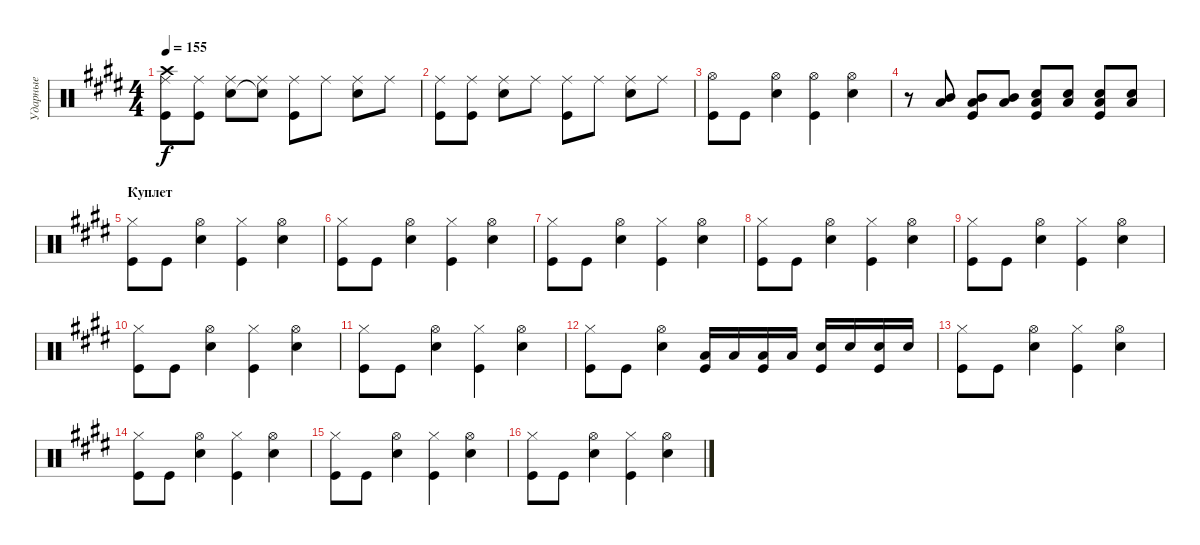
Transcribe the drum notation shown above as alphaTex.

\track ("Ударные" "Ударные") {instrument percussion}
\staff {score}
\articulation defaults
\ts (4 4)
\tempo 155
\clef neutral
\ks e
("Ride (middle)" "Crash high (hit)" "Kick (hit)").8{dy f} ("Ride (middle)" "Kick (hit)").8 ("Ride (middle)" "Snare (hit) 2").8 ("Ride (middle)" "Snare (hit)"{t}).8 ("Ride (middle)" "Kick (hit)").8 "Ride (middle)".8 ("Ride (middle)" "Snare (hit) 2").8 "Ride (middle)".8 |
("Ride (middle)" "Kick (hit)").8 ("Ride (middle)" "Kick (hit)").8 ("Ride (middle)" "Snare (hit) 2").8 "Ride (middle)".8 ("Ride (middle)" "Kick (hit)").8 "Ride (middle)".8 ("Ride (middle)" "Snare (hit) 2").8 "Ride (middle)".8 |
("Hi-Hat (open)" "Kick (hit)").8 "Kick (hit)".8 ("Hi-Hat (open)" "Snare (hit) 2").4 ("Hi-Hat (open)" "Kick (hit)").4 ("Hi-Hat (open)" "Snare (hit) 2").4 |
r.8 ("Mid Tom (hit)" "Low Tom (hit)").8 ("Mid Tom (hit)" "Low Tom (hit)" "Kick (hit)").8 ("Mid Tom (hit)" "Low Tom (hit)").8 ("Snare (hit) 2" "Low Tom (hit)" "Kick (hit)").8 ("Snare (hit) 2" "Low Tom (hit)").8 ("Snare (hit) 2" "Low Tom (hit)" "Kick (hit)").8 ("Snare (hit) 2" "Low Tom (hit)").8 |
\section ("" "Куплет")
("Hi-Hat (closed)" "Kick (hit)").8 "Kick (hit)".8 ("Hi-Hat (open)" "Snare (hit) 2").4 ("Hi-Hat (closed)" "Kick (hit)").4 ("Hi-Hat (open)" "Snare (hit) 2").4 |
("Hi-Hat (closed)" "Kick (hit)").8 "Kick (hit)".8 ("Hi-Hat (open)" "Snare (hit) 2").4 ("Hi-Hat (closed)" "Kick (hit)").4 ("Hi-Hat (open)" "Snare (hit) 2").4 |
("Hi-Hat (closed)" "Kick (hit)").8 "Kick (hit)".8 ("Hi-Hat (open)" "Snare (hit) 2").4 ("Hi-Hat (closed)" "Kick (hit)").4 ("Hi-Hat (open)" "Snare (hit) 2").4 |
("Hi-Hat (closed)" "Kick (hit)").8 "Kick (hit)".8 ("Hi-Hat (open)" "Snare (hit) 2").4 ("Hi-Hat (closed)" "Kick (hit)").4 ("Hi-Hat (open)" "Snare (hit) 2").4 |
("Hi-Hat (closed)" "Kick (hit)").8 "Kick (hit)".8 ("Hi-Hat (open)" "Snare (hit) 2").4 ("Hi-Hat (closed)" "Kick (hit)").4 ("Hi-Hat (open)" "Snare (hit) 2").4 |
("Hi-Hat (closed)" "Kick (hit)").8 "Kick (hit)".8 ("Hi-Hat (open)" "Snare (hit) 2").4 ("Hi-Hat (closed)" "Kick (hit)").4 ("Hi-Hat (open)" "Snare (hit) 2").4 |
("Hi-Hat (closed)" "Kick (hit)").8 "Kick (hit)".8 ("Hi-Hat (open)" "Snare (hit) 2").4 ("Hi-Hat (closed)" "Kick (hit)").4 ("Hi-Hat (open)" "Snare (hit) 2").4 |
("Hi-Hat (closed)" "Kick (hit)").8 "Kick (hit)".8 ("Hi-Hat (open)" "Snare (hit) 2").4 ("Low Tom (hit)" "Kick (hit)").16 "Low Tom (hit)".16 ("Low Tom (hit)" "Kick (hit)").16 "Low Tom (hit)".16 ("Snare (hit) 2" "Kick (hit)").16 "Snare (hit) 2".16 ("Snare (hit) 2" "Kick (hit)").16 "Snare (hit) 2".16 |
("Hi-Hat (closed)" "Kick (hit)").8 "Kick (hit)".8 ("Hi-Hat (open)" "Snare (hit) 2").4 ("Hi-Hat (closed)" "Kick (hit)").4 ("Hi-Hat (open)" "Snare (hit) 2").4 |
("Hi-Hat (closed)" "Kick (hit)").8 "Kick (hit)".8 ("Hi-Hat (open)" "Snare (hit) 2").4 ("Hi-Hat (closed)" "Kick (hit)").4 ("Hi-Hat (open)" "Snare (hit) 2").4 |
("Hi-Hat (closed)" "Kick (hit)").8 "Kick (hit)".8 ("Hi-Hat (open)" "Snare (hit) 2").4 ("Hi-Hat (closed)" "Kick (hit)").4 ("Hi-Hat (open)" "Snare (hit) 2").4 |
("Hi-Hat (closed)" "Kick (hit)").8 "Kick (hit)".8 ("Hi-Hat (open)" "Snare (hit) 2").4 ("Hi-Hat (closed)" "Kick (hit)").4 ("Hi-Hat (open)" "Snare (hit) 2").4
